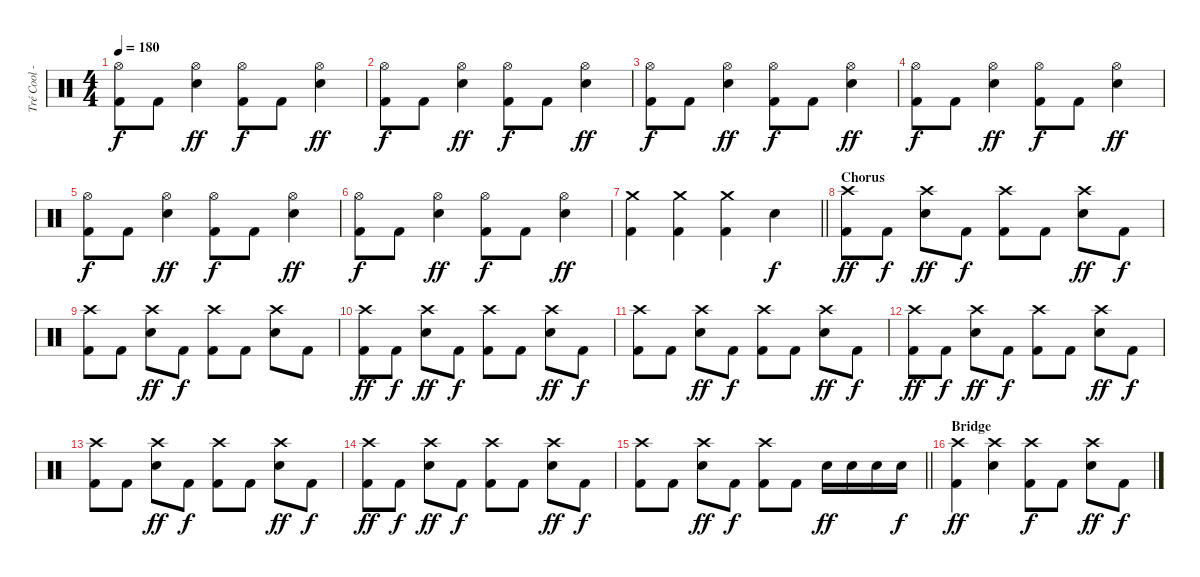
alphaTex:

\track ("Tré Cool - Drums" "Tré Cool -") {instrument percussion}
\staff {score}
\articulation defaults
\ts (4 4)
\tempo 180
\clef neutral
\ks c
("Hi-Hat (open)" "Kick (hit) 2").8{dy f} "Kick (hit) 2".8 ("Hi-Hat (open)" "Electric Snare (hit)").4{dy ff} ("Hi-Hat (open)" "Kick (hit) 2").8{dy f} "Kick (hit) 2".8 ("Hi-Hat (open)" "Electric Snare (hit)").4{dy ff} |
("Hi-Hat (open)" "Kick (hit) 2").8{dy f} "Kick (hit) 2".8 ("Hi-Hat (open)" "Electric Snare (hit)").4{dy ff} ("Hi-Hat (open)" "Kick (hit) 2").8{dy f} "Kick (hit) 2".8 ("Hi-Hat (open)" "Electric Snare (hit)").4{dy ff} |
("Hi-Hat (open)" "Kick (hit) 2").8{dy f} "Kick (hit) 2".8 ("Hi-Hat (open)" "Electric Snare (hit)").4{dy ff} ("Hi-Hat (open)" "Kick (hit) 2").8{dy f} "Kick (hit) 2".8 ("Hi-Hat (open)" "Electric Snare (hit)").4{dy ff} |
("Hi-Hat (open)" "Kick (hit) 2").8{dy f} "Kick (hit) 2".8 ("Hi-Hat (open)" "Electric Snare (hit)").4{dy ff} ("Hi-Hat (open)" "Kick (hit) 2").8{dy f} "Kick (hit) 2".8 ("Hi-Hat (open)" "Electric Snare (hit)").4{dy ff} |
("Hi-Hat (open)" "Kick (hit) 2").8{dy f} "Kick (hit) 2".8 ("Hi-Hat (open)" "Electric Snare (hit)").4{dy ff} ("Hi-Hat (open)" "Kick (hit) 2").8{dy f} "Kick (hit) 2".8 ("Hi-Hat (open)" "Electric Snare (hit)").4{dy ff} |
("Hi-Hat (open)" "Kick (hit) 2").8{dy f} "Kick (hit) 2".8 ("Hi-Hat (open)" "Electric Snare (hit)").4{dy ff} ("Hi-Hat (open)" "Kick (hit) 2").8{dy f} "Kick (hit) 2".8 ("Hi-Hat (open)" "Electric Snare (hit)").4{dy ff} |
\barLineRight lightlight
("Crash medium (hit)" "Kick (hit) 2").4 ("Crash medium (hit)" "Kick (hit) 2").4 ("Crash medium (hit)" "Kick (hit) 2").4 "Electric Snare (hit)".4{dy f} |
\section ("" "Chorus")
("Crash high (hit)" "Kick (hit) 2").8{dy ff} "Kick (hit) 2".8{dy f} ("Crash high (hit)" "Electric Snare (hit)").8{dy ff} "Kick (hit) 2".8{dy f} ("Crash high (hit)" "Kick (hit) 2").8 "Kick (hit) 2".8 ("Crash high (hit)" "Electric Snare (hit)").8{dy ff} "Kick (hit) 2".8{dy f} |
("Crash high (hit)" "Kick (hit) 2").8 "Kick (hit) 2".8 ("Crash high (hit)" "Electric Snare (hit)").8{dy ff} "Kick (hit) 2".8{dy f} ("Crash high (hit)" "Kick (hit) 2").8 "Kick (hit) 2".8 ("Crash high (hit)" "Electric Snare (hit)").8 "Kick (hit) 2".8 |
("Crash high (hit)" "Kick (hit) 2").8{dy ff} "Kick (hit) 2".8{dy f} ("Crash high (hit)" "Electric Snare (hit)").8{dy ff} "Kick (hit) 2".8{dy f} ("Crash high (hit)" "Kick (hit) 2").8 "Kick (hit) 2".8 ("Crash high (hit)" "Electric Snare (hit)").8{dy ff} "Kick (hit) 2".8{dy f} |
("Crash high (hit)" "Kick (hit) 2").8 "Kick (hit) 2".8 ("Crash high (hit)" "Electric Snare (hit)").8{dy ff} "Kick (hit) 2".8{dy f} ("Crash high (hit)" "Kick (hit) 2").8 "Kick (hit) 2".8 ("Crash high (hit)" "Electric Snare (hit)").8{dy ff} "Kick (hit) 2".8{dy f} |
("Crash high (hit)" "Kick (hit) 2").8{dy ff} "Kick (hit) 2".8{dy f} ("Crash high (hit)" "Electric Snare (hit)").8{dy ff} "Kick (hit) 2".8{dy f} ("Crash high (hit)" "Kick (hit) 2").8 "Kick (hit) 2".8 ("Crash high (hit)" "Electric Snare (hit)").8{dy ff} "Kick (hit) 2".8{dy f} |
("Crash high (hit)" "Kick (hit) 2").8 "Kick (hit) 2".8 ("Crash high (hit)" "Electric Snare (hit)").8{dy ff} "Kick (hit) 2".8{dy f} ("Crash high (hit)" "Kick (hit) 2").8 "Kick (hit) 2".8 ("Crash high (hit)" "Electric Snare (hit)").8{dy ff} "Kick (hit) 2".8{dy f} |
("Crash high (hit)" "Kick (hit) 2").8{dy ff} "Kick (hit) 2".8{dy f} ("Crash high (hit)" "Electric Snare (hit)").8{dy ff} "Kick (hit) 2".8{dy f} ("Crash high (hit)" "Kick (hit) 2").8 "Kick (hit) 2".8 ("Crash high (hit)" "Electric Snare (hit)").8{dy ff} "Kick (hit) 2".8{dy f} |
\barLineRight lightlight
("Crash high (hit)" "Kick (hit) 2").8 "Kick (hit) 2".8 ("Crash high (hit)" "Electric Snare (hit)").8{dy ff} "Kick (hit) 2".8{dy f} ("Crash high (hit)" "Kick (hit) 2").8 "Kick (hit) 2".8 "Electric Snare (hit)".16{dy ff} "Electric Snare (hit)".16 "Electric Snare (hit)".16 "Electric Snare (hit)".16{dy f} |
\section ("" "Bridge")
("Crash high (hit)" "Kick (hit) 2").4{dy ff} ("Crash high (hit)" "Electric Snare (hit)").4 ("Crash high (hit)" "Kick (hit) 2").8{dy f} "Kick (hit) 2".8 ("Crash high (hit)" "Electric Snare (hit)").8{dy ff} "Kick (hit) 2".8{dy f}
